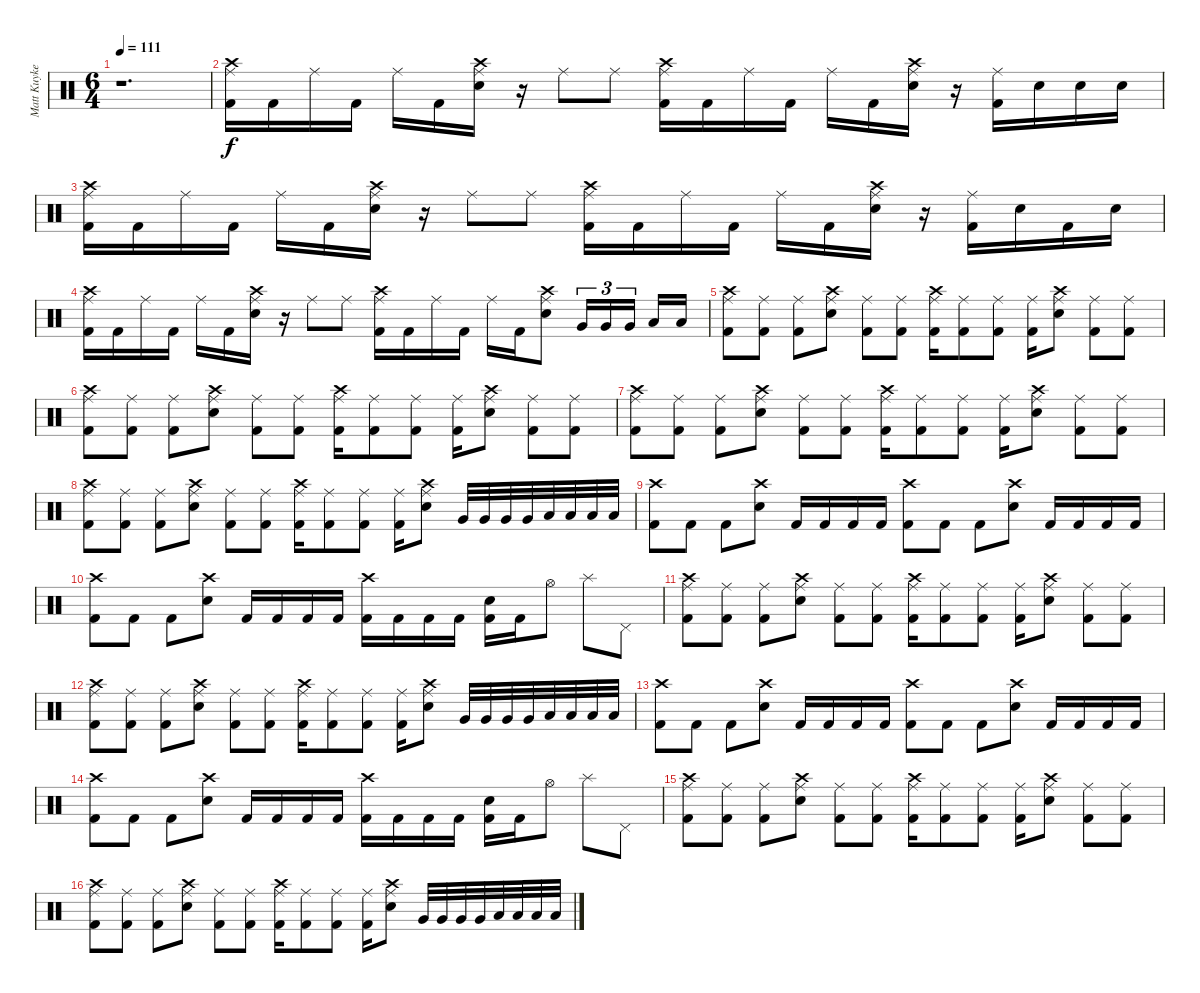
\track ("Matt Kuykendall (Drums)" "Matt Kuyke") {instrument percussion}
\staff {score}
\articulation defaults
\ts (6 4)
\tempo 111
\clef neutral
\ks c
r.1{d dy f} |
("Crash high (hit)" "Ride (middle)" "Kick (hit) 2").16 "Kick (hit) 2".16 "Ride (middle)".16 "Kick (hit) 2".16 "Ride (middle)".16 "Kick (hit) 2".16 ("Crash high (hit)" "Ride (middle)" "Snare (hit) 2").16 r.16 "Ride (middle)".8 "Ride (middle)".8 ("Crash high (hit)" "Ride (middle)" "Kick (hit) 2").16 "Kick (hit) 2".16 "Ride (middle)".16 "Kick (hit) 2".16 "Ride (middle)".16 "Kick (hit) 2".16 ("Crash high (hit)" "Ride (middle)" "Snare (hit) 2").16 r.16 ("Ride (middle)" "Kick (hit) 2").16 "Snare (hit) 2".16 "Snare (hit) 2".16 "Snare (hit) 2".16 |
("Crash high (hit)" "Ride (middle)" "Kick (hit) 2").16 "Kick (hit) 2".16 "Ride (middle)".16 "Kick (hit) 2".16 "Ride (middle)".16 "Kick (hit) 2".16 ("Crash high (hit)" "Ride (middle)" "Snare (hit) 2").16 r.16 "Ride (middle)".8 "Ride (middle)".8 ("Crash high (hit)" "Ride (middle)" "Kick (hit) 2").16 "Kick (hit) 2".16 "Ride (middle)".16 "Kick (hit) 2".16 "Ride (middle)".16 "Kick (hit) 2".16 ("Crash high (hit)" "Ride (middle)" "Snare (hit) 2").16 r.16 ("Ride (middle)" "Kick (hit) 2").16 "Snare (hit) 2".16 "Kick (hit) 2".16 "Snare (hit) 2".16 |
("Crash high (hit)" "Ride (middle)" "Kick (hit) 2").16 "Kick (hit) 2".16 "Ride (middle)".16 "Kick (hit) 2".16 "Ride (middle)".16 "Kick (hit) 2".16 ("Crash high (hit)" "Ride (middle)" "Snare (hit) 2").16 r.16 "Ride (middle)".8 "Ride (middle)".8 ("Crash high (hit)" "Ride (middle)" "Kick (hit) 2").16 "Kick (hit) 2".16 "Ride (middle)".16 "Kick (hit) 2".16 "Ride (middle)".16 "Kick (hit) 2".16 ("Crash high (hit)" "Ride (middle)" "Snare (hit) 2").8 "Very Low Tom (hit)".16{tu (3 2)} "Very Low Tom (hit)".16{tu (3 2)} "Very Low Tom (hit)".16{tu (3 2) beam splitsecondary} "Low Floor Tom (hit)".16 "Low Floor Tom (hit)".16 |
("Crash high (hit)" "Ride (middle)" "Kick (hit) 2").8 ("Ride (middle)" "Kick (hit) 2").8 ("Ride (middle)" "Kick (hit) 2").8 ("Crash high (hit)" "Ride (middle)" "Snare (hit) 2").8 ("Ride (middle)" "Kick (hit) 2").8 ("Ride (middle)" "Kick (hit) 2").8 ("Crash high (hit)" "Ride (middle)" "Kick (hit) 2").16 ("Ride (middle)" "Kick (hit) 2").8 ("Ride (middle)" "Kick (hit) 2").8 ("Ride (middle)" "Kick (hit) 2").16 ("Crash high (hit)" "Ride (middle)" "Snare (hit) 2").8 ("Ride (middle)" "Kick (hit) 2").8 ("Ride (middle)" "Kick (hit) 2").8 |
("Crash high (hit)" "Ride (middle)" "Kick (hit) 2").8 ("Ride (middle)" "Kick (hit) 2").8 ("Ride (middle)" "Kick (hit) 2").8 ("Crash high (hit)" "Ride (middle)" "Snare (hit) 2").8 ("Ride (middle)" "Kick (hit) 2").8 ("Ride (middle)" "Kick (hit) 2").8 ("Crash high (hit)" "Ride (middle)" "Kick (hit) 2").16 ("Ride (middle)" "Kick (hit) 2").8 ("Ride (middle)" "Kick (hit) 2").8 ("Ride (middle)" "Kick (hit) 2").16 ("Crash high (hit)" "Ride (middle)" "Snare (hit) 2").8 ("Ride (middle)" "Kick (hit) 2").8 ("Ride (middle)" "Kick (hit) 2").8 |
("Crash high (hit)" "Ride (middle)" "Kick (hit) 2").8 ("Ride (middle)" "Kick (hit) 2").8 ("Ride (middle)" "Kick (hit) 2").8 ("Crash high (hit)" "Ride (middle)" "Snare (hit) 2").8 ("Ride (middle)" "Kick (hit) 2").8 ("Ride (middle)" "Kick (hit) 2").8 ("Crash high (hit)" "Ride (middle)" "Kick (hit) 2").16 ("Ride (middle)" "Kick (hit) 2").8 ("Ride (middle)" "Kick (hit) 2").8 ("Ride (middle)" "Kick (hit) 2").16 ("Crash high (hit)" "Ride (middle)" "Snare (hit) 2").8 ("Ride (middle)" "Kick (hit) 2").8 ("Ride (middle)" "Kick (hit) 2").8 |
("Crash high (hit)" "Ride (middle)" "Kick (hit) 2").8 ("Ride (middle)" "Kick (hit) 2").8 ("Ride (middle)" "Kick (hit) 2").8 ("Crash high (hit)" "Ride (middle)" "Snare (hit) 2").8 ("Ride (middle)" "Kick (hit) 2").8 ("Ride (middle)" "Kick (hit) 2").8 ("Crash high (hit)" "Ride (middle)" "Kick (hit) 2").16 ("Ride (middle)" "Kick (hit) 2").8 ("Ride (middle)" "Kick (hit) 2").8 ("Ride (middle)" "Kick (hit) 2").16 ("Crash high (hit)" "Ride (middle)" "Snare (hit) 2").8 "Very Low Tom (hit)".32 "Very Low Tom (hit)".32 "Very Low Tom (hit)".32 "Very Low Tom (hit)".32 "Low Floor Tom (hit)".32 "Low Floor Tom (hit)".32 "Low Floor Tom (hit)".32 "Low Floor Tom (hit)".32 |
("Crash high (hit)" "Kick (hit) 2").8 "Kick (hit) 2".8 "Kick (hit) 2".8 ("Crash high (hit)" "Snare (hit) 2").8 "Kick (hit) 2".16 "Kick (hit) 2".16 "Kick (hit) 2".16 "Kick (hit) 2".16 ("Crash high (hit)" "Kick (hit) 2").8 "Kick (hit) 2".8 "Kick (hit) 2".8 ("Crash high (hit)" "Snare (hit) 2").8 "Kick (hit) 2".16 "Kick (hit) 2".16 "Kick (hit) 2".16 "Kick (hit) 2".16 |
("Crash high (hit)" "Kick (hit) 2").8 "Kick (hit) 2".8 "Kick (hit) 2".8 ("Crash high (hit)" "Snare (hit) 2").8 "Kick (hit) 2".16 "Kick (hit) 2".16 "Kick (hit) 2".16 "Kick (hit) 2".16 ("Crash high (hit)" "Kick (hit) 2").16 "Kick (hit) 2".16 "Kick (hit) 2".16 "Kick (hit) 2".16 ("Snare (hit) 2" "Kick (hit) 2").16 "Kick (hit) 2".16 "Hi-Hat (open)".8 "Splash (hit)".8 "Pedal Hi-Hat (hit)".8 |
("Crash high (hit)" "Ride (middle)" "Kick (hit) 2").8 ("Ride (middle)" "Kick (hit) 2").8 ("Ride (middle)" "Kick (hit) 2").8 ("Crash high (hit)" "Ride (middle)" "Snare (hit) 2").8 ("Ride (middle)" "Kick (hit) 2").8 ("Ride (middle)" "Kick (hit) 2").8 ("Crash high (hit)" "Ride (middle)" "Kick (hit) 2").16 ("Ride (middle)" "Kick (hit) 2").8 ("Ride (middle)" "Kick (hit) 2").8 ("Ride (middle)" "Kick (hit) 2").16 ("Crash high (hit)" "Ride (middle)" "Snare (hit) 2").8 ("Ride (middle)" "Kick (hit) 2").8 ("Ride (middle)" "Kick (hit) 2").8 |
("Crash high (hit)" "Ride (middle)" "Kick (hit) 2").8 ("Ride (middle)" "Kick (hit) 2").8 ("Ride (middle)" "Kick (hit) 2").8 ("Crash high (hit)" "Ride (middle)" "Snare (hit) 2").8 ("Ride (middle)" "Kick (hit) 2").8 ("Ride (middle)" "Kick (hit) 2").8 ("Crash high (hit)" "Ride (middle)" "Kick (hit) 2").16 ("Ride (middle)" "Kick (hit) 2").8 ("Ride (middle)" "Kick (hit) 2").8 ("Ride (middle)" "Kick (hit) 2").16 ("Crash high (hit)" "Ride (middle)" "Snare (hit) 2").8 "Very Low Tom (hit)".32 "Very Low Tom (hit)".32 "Very Low Tom (hit)".32 "Very Low Tom (hit)".32 "Low Floor Tom (hit)".32 "Low Floor Tom (hit)".32 "Low Floor Tom (hit)".32 "Low Floor Tom (hit)".32 |
("Crash high (hit)" "Kick (hit) 2").8 "Kick (hit) 2".8 "Kick (hit) 2".8 ("Crash high (hit)" "Snare (hit) 2").8 "Kick (hit) 2".16 "Kick (hit) 2".16 "Kick (hit) 2".16 "Kick (hit) 2".16 ("Crash high (hit)" "Kick (hit) 2").8 "Kick (hit) 2".8 "Kick (hit) 2".8 ("Crash high (hit)" "Snare (hit) 2").8 "Kick (hit) 2".16 "Kick (hit) 2".16 "Kick (hit) 2".16 "Kick (hit) 2".16 |
("Crash high (hit)" "Kick (hit) 2").8 "Kick (hit) 2".8 "Kick (hit) 2".8 ("Crash high (hit)" "Snare (hit) 2").8 "Kick (hit) 2".16 "Kick (hit) 2".16 "Kick (hit) 2".16 "Kick (hit) 2".16 ("Crash high (hit)" "Kick (hit) 2").16 "Kick (hit) 2".16 "Kick (hit) 2".16 "Kick (hit) 2".16 ("Snare (hit) 2" "Kick (hit) 2").16 "Kick (hit) 2".16 "Hi-Hat (open)".8 "Splash (hit)".8 "Pedal Hi-Hat (hit)".8 |
("Crash high (hit)" "Ride (middle)" "Kick (hit) 2").8 ("Ride (middle)" "Kick (hit) 2").8 ("Ride (middle)" "Kick (hit) 2").8 ("Crash high (hit)" "Ride (middle)" "Snare (hit) 2").8 ("Ride (middle)" "Kick (hit) 2").8 ("Ride (middle)" "Kick (hit) 2").8 ("Crash high (hit)" "Ride (middle)" "Kick (hit) 2").16 ("Ride (middle)" "Kick (hit) 2").8 ("Ride (middle)" "Kick (hit) 2").8 ("Ride (middle)" "Kick (hit) 2").16 ("Crash high (hit)" "Ride (middle)" "Snare (hit) 2").8 ("Ride (middle)" "Kick (hit) 2").8 ("Ride (middle)" "Kick (hit) 2").8 |
("Crash high (hit)" "Ride (middle)" "Kick (hit) 2").8 ("Ride (middle)" "Kick (hit) 2").8 ("Ride (middle)" "Kick (hit) 2").8 ("Crash high (hit)" "Ride (middle)" "Snare (hit) 2").8 ("Ride (middle)" "Kick (hit) 2").8 ("Ride (middle)" "Kick (hit) 2").8 ("Crash high (hit)" "Ride (middle)" "Kick (hit) 2").16 ("Ride (middle)" "Kick (hit) 2").8 ("Ride (middle)" "Kick (hit) 2").8 ("Ride (middle)" "Kick (hit) 2").16 ("Crash high (hit)" "Ride (middle)" "Snare (hit) 2").8 "Very Low Tom (hit)".32 "Very Low Tom (hit)".32 "Very Low Tom (hit)".32 "Very Low Tom (hit)".32 "Low Floor Tom (hit)".32 "Low Floor Tom (hit)".32 "Low Floor Tom (hit)".32 "Low Floor Tom (hit)".32
